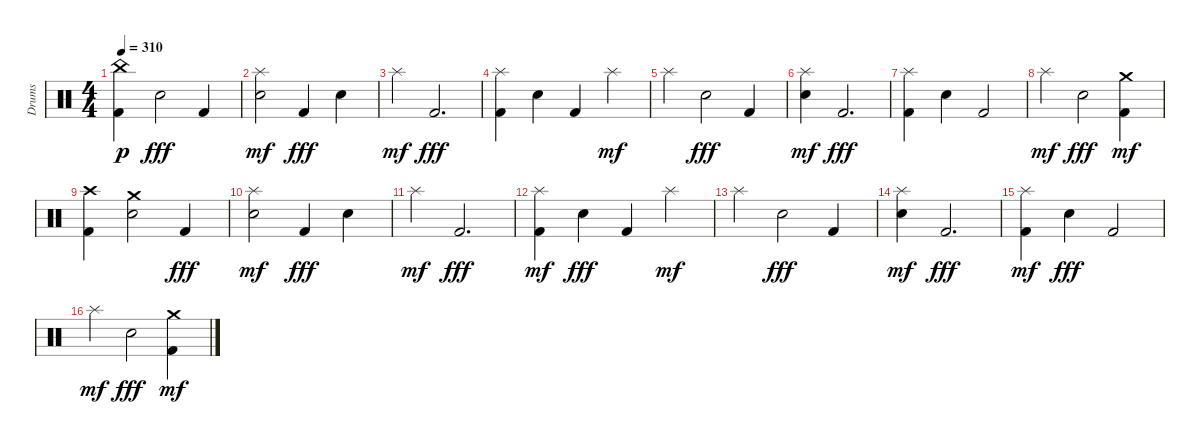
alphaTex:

\track ("Drums" "Drums") {solo instrument percussion}
\staff {score}
\articulation defaults
\ts (4 4)
\tempo 310
\clef neutral
\ks c
("Kick (hit) 2" "China (hit)").4{dy p} "Electric Snare (hit)".2{dy fff} "Kick (hit) 2".4 |
("Electric Snare (hit)" "Splash (hit)").2{dy mf} "Kick (hit) 2".4{dy fff} "Electric Snare (hit)".4 |
"Splash (hit)".4{dy mf} "Kick (hit) 2".2{d dy fff} |
("Kick (hit) 2" "Splash (hit)").4 "Electric Snare (hit)".4 "Kick (hit) 2".4 "Splash (hit)".4{dy mf} |
"Splash (hit)".4 "Electric Snare (hit)".2{dy fff} "Kick (hit) 2".4 |
("Electric Snare (hit)" "Splash (hit)").4{dy mf} "Kick (hit) 2".2{d dy fff} |
("Kick (hit) 2" "Splash (hit)").4 "Electric Snare (hit)".4 "Kick (hit) 2".2 |
"Splash (hit)".4{dy mf} "Electric Snare (hit)".2{dy fff} ("Kick (hit) 2" "Crash medium (hit)").4{dy mf} |
("Kick (hit) 2" "Crash high (hit)").4 ("Electric Snare (hit)" "Crash medium (hit)").2 "Kick (hit) 2".4{dy fff} |
("Electric Snare (hit)" "Splash (hit)").2{dy mf} "Kick (hit) 2".4{dy fff} "Electric Snare (hit)".4 |
"Splash (hit)".4{dy mf} "Kick (hit) 2".2{d dy fff} |
("Kick (hit) 2" "Splash (hit)").4{dy mf} "Electric Snare (hit)".4{dy fff} "Kick (hit) 2".4 "Splash (hit)".4{dy mf} |
"Splash (hit)".4 "Electric Snare (hit)".2{dy fff} "Kick (hit) 2".4 |
("Electric Snare (hit)" "Splash (hit)").4{dy mf} "Kick (hit) 2".2{d dy fff} |
("Kick (hit) 2" "Splash (hit)").4{dy mf} "Electric Snare (hit)".4{dy fff} "Kick (hit) 2".2 |
"Splash (hit)".4{dy mf} "Electric Snare (hit)".2{dy fff} ("Kick (hit) 2" "Crash medium (hit)").4{dy mf}
